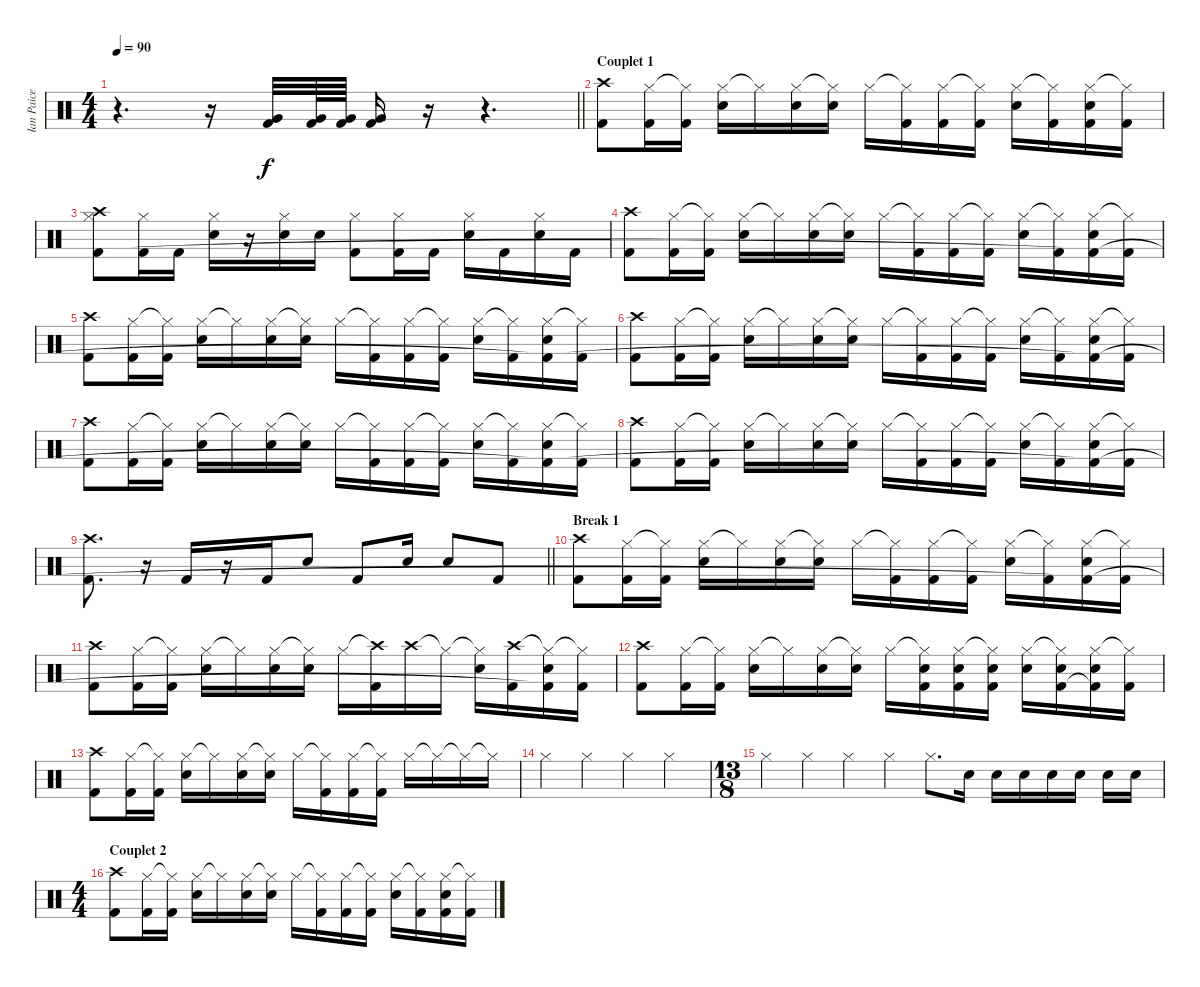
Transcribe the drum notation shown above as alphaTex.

\track ("Ian Paice" "Ian Paice") {instrument percussion}
\staff {score}
\articulation defaults
\ts (4 4)
\tempo 90
\clef neutral
\barLineRight lightlight
\ks c
r.4{d dy f} r.16 ("Very Low Tom (hit)" "Kick (hit) 2").32 ("Very Low Tom (hit)" "Kick (hit) 2").64 ("Very Low Tom (hit)" "Kick (hit) 2").64 ("Very Low Tom (hit)" "Kick (hit) 2").16 r.16 r.4{d} |
\section ("" "Couplet 1")
("Crash high (hit)" "Kick (hit) 2").8 ("Hi-Hat (closed)" "Kick (hit) 2").16 ("Hi-Hat (closed)"{t} "Kick (hit) 2").16 ("Hi-Hat (closed)" "Snare (hit) 2").16 "Hi-Hat (closed)"{t}.16 ("Hi-Hat (closed)" "Snare (hit) 2").16 ("Hi-Hat (closed)"{t} "Snare (hit) 2").16 "Hi-Hat (closed)".16 ("Hi-Hat (closed)"{t} "Kick (hit) 2").16 ("Hi-Hat (closed)" "Kick (hit) 2").16 ("Hi-Hat (closed)"{t} "Kick (hit) 2").16 ("Hi-Hat (closed)" "Snare (hit) 2").16 ("Hi-Hat (closed)"{t} "Kick (hit) 2").16 ("Hi-Hat (closed)" "Snare (hit) 2" "Kick (hit) 2").16 ("Hi-Hat (closed)"{t} "Kick (hit) 2").16 |
("Hi-Hat (closed)" "Crash high (hit)" "Kick (hit) 2").8 ("Hi-Hat (closed)" "Kick (hit) 2").16 "Kick (hit) 2".16 ("Hi-Hat (closed)" "Snare (hit) 2").16 r.16 ("Hi-Hat (closed)" "Snare (hit) 2").16 "Snare (hit) 2".16 ("Hi-Hat (closed)" "Kick (hit) 2").8 ("Hi-Hat (closed)" "Kick (hit) 2").16 "Kick (hit) 2".16 ("Hi-Hat (closed)" "Snare (hit) 2").16 "Kick (hit) 2".16 ("Hi-Hat (closed)" "Snare (hit) 2").16 "Kick (hit) 2".16 |
("Crash high (hit)" "Kick (hit) 2").8 ("Hi-Hat (closed)" "Kick (hit) 2").16 ("Hi-Hat (closed)"{t} "Kick (hit) 2").16 ("Hi-Hat (closed)" "Snare (hit) 2").16 "Hi-Hat (closed)"{t}.16 ("Hi-Hat (closed)" "Snare (hit) 2").16 ("Hi-Hat (closed)"{t} "Snare (hit) 2").16 "Hi-Hat (closed)".16 ("Hi-Hat (closed)"{t} "Kick (hit) 2").16 ("Hi-Hat (closed)" "Kick (hit) 2").16 ("Hi-Hat (closed)"{t} "Kick (hit) 2").16 ("Hi-Hat (closed)" "Snare (hit) 2").16 ("Hi-Hat (closed)"{t} "Kick (hit) 2").16 ("Hi-Hat (closed)" "Snare (hit) 2" "Kick (hit) 2"{t}).16 ("Hi-Hat (closed)"{t} "Kick (hit) 2").16 |
("Crash high (hit)" "Kick (hit) 2").8 ("Hi-Hat (closed)" "Kick (hit) 2").16 ("Hi-Hat (closed)"{t} "Kick (hit) 2").16 ("Hi-Hat (closed)" "Snare (hit) 2").16 "Hi-Hat (closed)"{t}.16 ("Hi-Hat (closed)" "Snare (hit) 2").16 ("Hi-Hat (closed)"{t} "Snare (hit) 2").16 "Hi-Hat (closed)".16 ("Hi-Hat (closed)"{t} "Kick (hit) 2").16 ("Hi-Hat (closed)" "Kick (hit) 2").16 ("Hi-Hat (closed)"{t} "Kick (hit) 2").16 ("Hi-Hat (closed)" "Snare (hit) 2").16 ("Hi-Hat (closed)"{t} "Kick (hit) 2").16 ("Hi-Hat (closed)" "Snare (hit) 2" "Kick (hit) 2"{t}).16 ("Hi-Hat (closed)"{t} "Kick (hit) 2").16 |
("Crash high (hit)" "Kick (hit) 2").8 ("Hi-Hat (closed)" "Kick (hit) 2").16 ("Hi-Hat (closed)"{t} "Kick (hit) 2").16 ("Hi-Hat (closed)" "Snare (hit) 2").16 "Hi-Hat (closed)"{t}.16 ("Hi-Hat (closed)" "Snare (hit) 2").16 ("Hi-Hat (closed)"{t} "Snare (hit) 2").16 "Hi-Hat (closed)".16 ("Hi-Hat (closed)"{t} "Kick (hit) 2").16 ("Hi-Hat (closed)" "Kick (hit) 2").16 ("Hi-Hat (closed)"{t} "Kick (hit) 2").16 ("Hi-Hat (closed)" "Snare (hit) 2").16 ("Hi-Hat (closed)"{t} "Kick (hit) 2").16 ("Hi-Hat (closed)" "Snare (hit) 2" "Kick (hit) 2"{t}).16 ("Hi-Hat (closed)"{t} "Kick (hit) 2").16 |
("Crash high (hit)" "Kick (hit) 2").8 ("Hi-Hat (closed)" "Kick (hit) 2").16 ("Hi-Hat (closed)"{t} "Kick (hit) 2").16 ("Hi-Hat (closed)" "Snare (hit) 2").16 "Hi-Hat (closed)"{t}.16 ("Hi-Hat (closed)" "Snare (hit) 2").16 ("Hi-Hat (closed)"{t} "Snare (hit) 2").16 "Hi-Hat (closed)".16 ("Hi-Hat (closed)"{t} "Kick (hit) 2").16 ("Hi-Hat (closed)" "Kick (hit) 2").16 ("Hi-Hat (closed)"{t} "Kick (hit) 2").16 ("Hi-Hat (closed)" "Snare (hit) 2").16 ("Hi-Hat (closed)"{t} "Kick (hit) 2").16 ("Hi-Hat (closed)" "Snare (hit) 2" "Kick (hit) 2"{t}).16 ("Hi-Hat (closed)"{t} "Kick (hit) 2").16 |
("Crash high (hit)" "Kick (hit) 2").8 ("Hi-Hat (closed)" "Kick (hit) 2").16 ("Hi-Hat (closed)"{t} "Kick (hit) 2").16 ("Hi-Hat (closed)" "Snare (hit) 2").16 "Hi-Hat (closed)"{t}.16 ("Hi-Hat (closed)" "Snare (hit) 2").16 ("Hi-Hat (closed)"{t} "Snare (hit) 2").16 "Hi-Hat (closed)".16 ("Hi-Hat (closed)"{t} "Kick (hit) 2").16 ("Hi-Hat (closed)" "Kick (hit) 2").16 ("Hi-Hat (closed)"{t} "Kick (hit) 2").16 ("Hi-Hat (closed)" "Snare (hit) 2").16 ("Hi-Hat (closed)"{t} "Kick (hit) 2").16 ("Hi-Hat (closed)" "Snare (hit) 2" "Kick (hit) 2"{t}).16 ("Hi-Hat (closed)"{t} "Kick (hit) 2").16 |
\barLineRight lightlight
("Crash high (hit)" "Kick (hit) 2").8{d} r.16 "Kick (hit) 2".16 r.16 "Kick (hit) 2".16 "Snare (hit) 2".8 "Kick (hit) 2".8 "Snare (hit) 2".16 "Snare (hit) 2".8 "Kick (hit) 2".8 |
\section ("" "Break 1")
("Crash high (hit)" "Kick (hit) 2").8 ("Hi-Hat (closed)" "Kick (hit) 2").16 ("Hi-Hat (closed)"{t} "Kick (hit) 2").16 ("Hi-Hat (closed)" "Snare (hit) 2").16 "Hi-Hat (closed)"{t}.16 ("Hi-Hat (closed)" "Snare (hit) 2").16 ("Hi-Hat (closed)"{t} "Snare (hit) 2").16 "Hi-Hat (closed)".16 ("Hi-Hat (closed)"{t} "Kick (hit) 2").16 ("Hi-Hat (closed)" "Kick (hit) 2").16 ("Hi-Hat (closed)"{t} "Kick (hit) 2").16 ("Hi-Hat (closed)" "Snare (hit) 2").16 ("Hi-Hat (closed)"{t} "Kick (hit) 2").16 ("Hi-Hat (closed)" "Snare (hit) 2" "Kick (hit) 2"{t}).16 ("Hi-Hat (closed)"{t} "Kick (hit) 2").16 |
("Crash high (hit)" "Kick (hit) 2").8 ("Hi-Hat (closed)" "Kick (hit) 2").16 ("Hi-Hat (closed)"{t} "Kick (hit) 2").16 ("Hi-Hat (closed)" "Snare (hit) 2").16 "Hi-Hat (closed)"{t}.16 ("Hi-Hat (closed)" "Snare (hit) 2").16 ("Hi-Hat (closed)"{t} "Snare (hit) 2").16 "Hi-Hat (closed)".16 ("Crash high (hit)"{t} "Kick (hit) 2").16 "Crash high (hit)".16 "Hi-Hat (closed)"{t}.16 ("Hi-Hat (closed)"{t} "Snare (hit) 2").16 ("Crash high (hit)" "Kick (hit) 2").16 ("Hi-Hat (closed)"{t} "Snare (hit) 2" "Kick (hit) 2"{t}).16 ("Hi-Hat (closed)"{t} "Kick (hit) 2").16 |
("Crash high (hit)" "Kick (hit) 2").8 ("Hi-Hat (closed)" "Kick (hit) 2").16 ("Hi-Hat (closed)"{t} "Kick (hit) 2").16 ("Hi-Hat (closed)" "Snare (hit) 2").16 "Hi-Hat (closed)"{t}.16 ("Hi-Hat (closed)" "Snare (hit) 2").16 ("Hi-Hat (closed)"{t} "Snare (hit) 2").16 "Hi-Hat (closed)".16 ("Hi-Hat (closed)"{t} "Snare (hit) 2" "Kick (hit) 2").16 ("Hi-Hat (closed)" "Snare (hit) 2" "Kick (hit) 2").16 ("Hi-Hat (closed)"{t} "Snare (hit) 2" "Kick (hit) 2").16 ("Hi-Hat (closed)" "Snare (hit) 2").16 ("Hi-Hat (closed)"{t} "Snare (hit) 2" "Kick (hit) 2").16 ("Hi-Hat (closed)" "Snare (hit) 2" "Kick (hit) 2"{t}).16 ("Hi-Hat (closed)"{t} "Kick (hit) 2").16 |
("Crash high (hit)" "Kick (hit) 2").8 ("Hi-Hat (closed)" "Kick (hit) 2").16 ("Hi-Hat (closed)"{t} "Kick (hit) 2").16 ("Hi-Hat (closed)" "Snare (hit) 2").16 "Hi-Hat (closed)"{t}.16 ("Hi-Hat (closed)" "Snare (hit) 2").16 ("Hi-Hat (closed)"{t} "Snare (hit) 2").16 "Hi-Hat (closed)".16 ("Hi-Hat (closed)"{t} "Kick (hit) 2").16 ("Hi-Hat (closed)" "Kick (hit) 2").16 ("Hi-Hat (closed)"{t} "Kick (hit) 2").16 "Hi-Hat (closed)".16 "Hi-Hat (closed)"{t}.16 "Hi-Hat (closed)"{t}.16 "Hi-Hat (closed)"{t}.16 |
"Hi-Hat (closed)".4 "Hi-Hat (closed)".4 "Hi-Hat (closed)".4 "Hi-Hat (closed)".4 |
\ts (13 8)
"Hi-Hat (closed)".4 "Hi-Hat (closed)".4 "Hi-Hat (closed)".4 "Hi-Hat (closed)".4 "Hi-Hat (closed)".8{d} "Snare (hit) 2".16 "Snare (hit) 2".16 "Snare (hit) 2".16 "Snare (hit) 2".16 "Snare (hit) 2".16 "Snare (hit) 2".16 "Snare (hit) 2".16 |
\ts (4 4)
\section ("" "Couplet 2")
("Crash high (hit)" "Kick (hit) 2").8 ("Hi-Hat (closed)" "Kick (hit) 2").16 ("Hi-Hat (closed)"{t} "Kick (hit) 2").16 ("Hi-Hat (closed)" "Snare (hit) 2").16 "Hi-Hat (closed)"{t}.16 ("Hi-Hat (closed)" "Snare (hit) 2").16 ("Hi-Hat (closed)"{t} "Snare (hit) 2").16 "Hi-Hat (closed)".16 ("Hi-Hat (closed)"{t} "Kick (hit) 2").16 ("Hi-Hat (closed)" "Kick (hit) 2").16 ("Hi-Hat (closed)"{t} "Kick (hit) 2").16 ("Hi-Hat (closed)" "Snare (hit) 2").16 ("Hi-Hat (closed)"{t} "Kick (hit) 2").16 ("Hi-Hat (closed)" "Snare (hit) 2" "Kick (hit) 2").16 ("Hi-Hat (closed)"{t} "Kick (hit) 2").16
